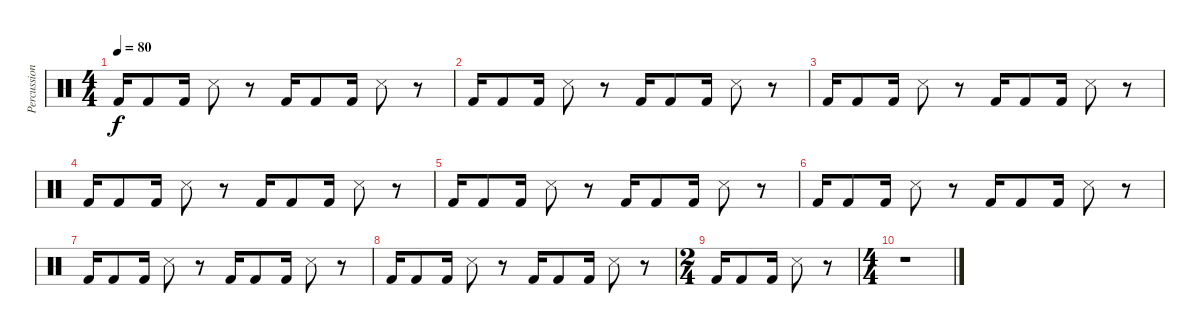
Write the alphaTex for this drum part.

\track ("Percussion" "Percussion") {instrument percussion}
\staff {score}
\articulation defaults
\ts (4 4)
\tempo 80
\clef neutral
\ks c "Kick (hit) 2".16{dy f} "Kick (hit) 2".8 "Kick (hit) 2".16 "Snare (side stick) 3".8
r.8 "Kick (hit) 2".16 "Kick (hit) 2".8 "Kick (hit) 2".16 "Snare (side stick) 3".8 r.8 |
"Kick (hit) 2".16 "Kick (hit) 2".8 "Kick (hit) 2".16 "Snare (side stick) 3".8 r.8 "Kick (hit) 2".16 "Kick (hit) 2".8 "Kick (hit) 2".16 "Snare (side stick) 3".8 r.8 |
"Kick (hit) 2".16 "Kick (hit) 2".8 "Kick (hit) 2".16 "Snare (side stick) 3".8 r.8 "Kick (hit) 2".16 "Kick (hit) 2".8 "Kick (hit) 2".16 "Snare (side stick) 3".8 r.8 |
"Kick (hit) 2".16 "Kick (hit) 2".8 "Kick (hit) 2".16 "Snare (side stick) 3".8 r.8 "Kick (hit) 2".16 "Kick (hit) 2".8 "Kick (hit) 2".16 "Snare (side stick) 3".8 r.8 |
"Kick (hit) 2".16 "Kick (hit) 2".8 "Kick (hit) 2".16 "Snare (side stick) 3".8 r.8 "Kick (hit) 2".16 "Kick (hit) 2".8 "Kick (hit) 2".16 "Snare (side stick) 3".8 r.8 |
"Kick (hit) 2".16 "Kick (hit) 2".8 "Kick (hit) 2".16 "Snare (side stick) 3".8 r.8 "Kick (hit) 2".16 "Kick (hit) 2".8 "Kick (hit) 2".16 "Snare (side stick) 3".8 r.8 |
"Kick (hit) 2".16 "Kick (hit) 2".8 "Kick (hit) 2".16 "Snare (side stick) 3".8 r.8 "Kick (hit) 2".16 "Kick (hit) 2".8 "Kick (hit) 2".16 "Snare (side stick) 3".8 r.8 |
"Kick (hit) 2".16 "Kick (hit) 2".8 "Kick (hit) 2".16 "Snare (side stick) 3".8 r.8 "Kick (hit) 2".16 "Kick (hit) 2".8 "Kick (hit) 2".16 "Snare (side stick) 3".8 r.8 |
\ts (2 4)
"Kick (hit) 2".16 "Kick (hit) 2".8 "Kick (hit) 2".16 "Snare (side stick) 3".8 r.8 |
\ts (4 4)
r.1
